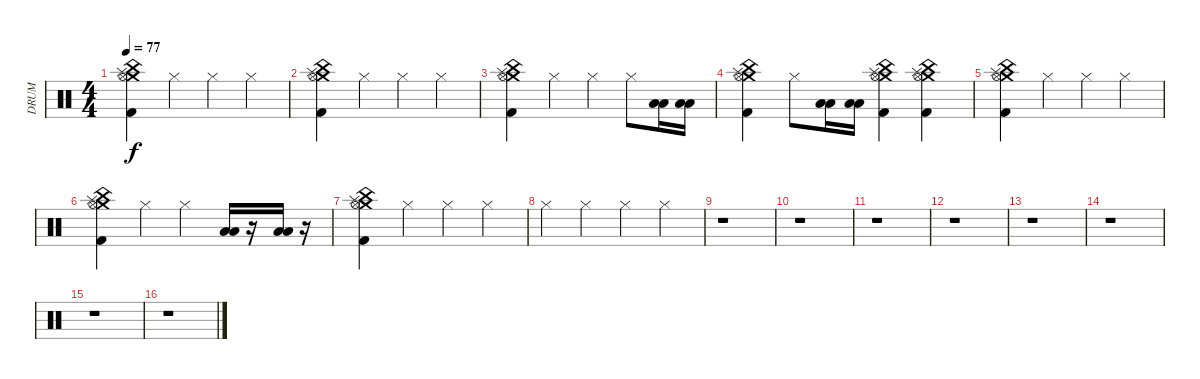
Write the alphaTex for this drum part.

\track (" DRUM" " DRUM") {instrument percussion}
\staff {score}
\articulation defaults
\ts (4 4)
\tempo 77
\clef neutral
\ks c
("Splash (hit)" "China (hit)" "Crash medium (hit)" "Hi-Hat (open)" "Kick (hit) 2").4{dy f volume 11} "Hi-Hat (closed)".4 "Hi-Hat (closed)".4 "Hi-Hat (closed)".4 |
("China (hit)" "Splash (hit)" "Crash medium (hit)" "Hi-Hat (open)" "Kick (hit) 2").4 "Hi-Hat (closed)".4 "Hi-Hat (closed)".4 "Hi-Hat (closed)".4 |
("Splash (hit)" "China (hit)" "Crash medium (hit)" "Hi-Hat (open)" "Kick (hit) 2").4 "Hi-Hat (closed)".4 "Hi-Hat (closed)".4 "Hi-Hat (closed)".8 ("Low Tom (hit)" "Low Floor Tom (hit)").16 ("Low Tom (hit)" "Low Floor Tom (hit)").16 |
("Crash medium (hit)" "Splash (hit)" "China (hit)" "Hi-Hat (open)" "Kick (hit) 2").4 "Hi-Hat (closed)".8 ("Low Tom (hit)" "Low Floor Tom (hit)").16 ("Low Tom (hit)" "Low Floor Tom (hit)").16 ("Splash (hit)" "China (hit)" "Crash medium (hit)" "Hi-Hat (open)" "Kick (hit) 2").4 ("Splash (hit)" "China (hit)" "Crash medium (hit)" "Hi-Hat (open)" "Kick (hit) 2").4 |
("China (hit)" "Splash (hit)" "Crash medium (hit)" "Hi-Hat (open)" "Kick (hit) 2").4 "Hi-Hat (closed)".4 "Hi-Hat (closed)".4 "Hi-Hat (closed)".4 |
("Splash (hit)" "China (hit)" "Crash medium (hit)" "Hi-Hat (open)" "Kick (hit) 2").4 "Hi-Hat (closed)".4 "Hi-Hat (closed)".4 ("Low Tom (hit)" "Low Floor Tom (hit)").16 r.16 ("Low Tom (hit)" "Low Floor Tom (hit)").16 r.16 |
("Splash (hit)" "China (hit)" "Crash medium (hit)" "Hi-Hat (open)" "Kick (hit) 2").4 "Hi-Hat (closed)".4 "Hi-Hat (closed)".4 "Hi-Hat (closed)".4 |
"Hi-Hat (closed)".4 "Hi-Hat (closed)".4 "Hi-Hat (closed)".4 "Hi-Hat (closed)".4 |
r.1 |
r.1 |
r.1 |
r.1 |
r.1 |
r.1 |
r.1 |
r.1
